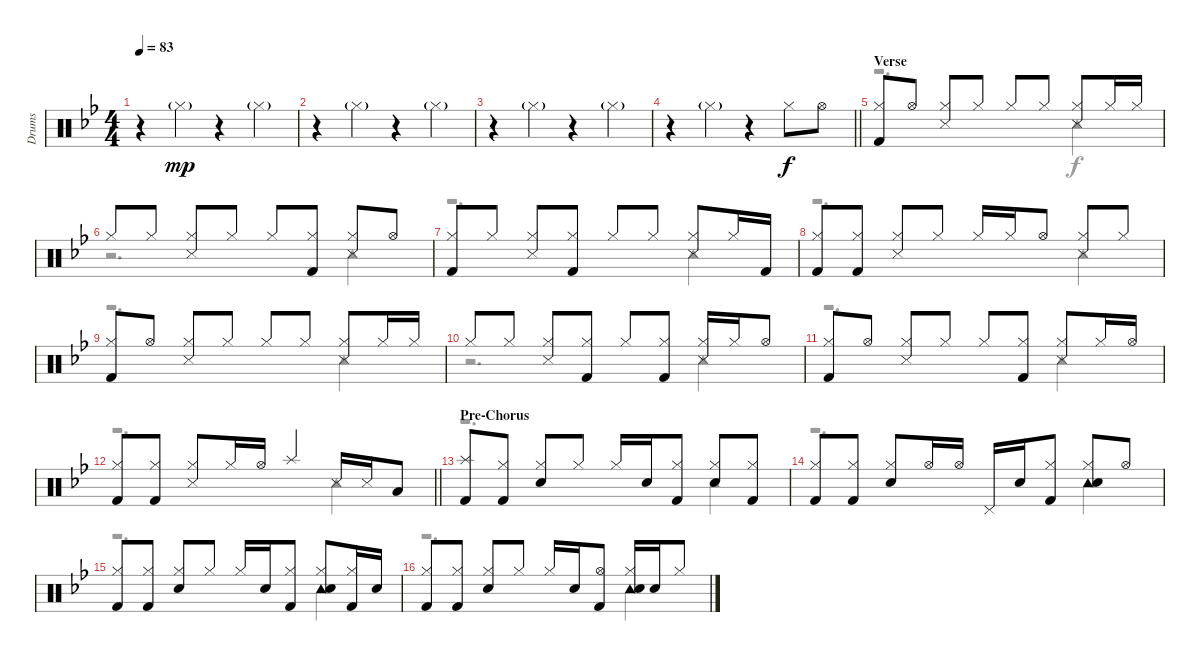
\track ("Drums" "Drums") {instrument percussion}
\staff {score}
\articulation defaults
\voice
\ts (4 4)
\section ("" "")
\tempo 83
\clef neutral
\ks bb
r.4{dy f} "Hi-Hat (closed)"{g}.4{dy mp} r.4 "Hi-Hat (closed)"{g}.4 |
r.4 "Hi-Hat (closed)"{g}.4 r.4 "Hi-Hat (closed)"{g}.4 |
r.4 "Hi-Hat (closed)"{g}.4 r.4 "Hi-Hat (closed)"{g}.4 |
\barLineRight lightlight
r.4 "Hi-Hat (closed)"{g}.4 r.4 "Hi-Hat (closed)".8{dy f} "Hi-Hat (open)".8 |
\section ("" "Verse")
("Hi-Hat (closed)" "Kick (hit) 2").8 "Hi-Hat (open)".8 ("Hi-Hat (closed)" "Snare (side stick) 3").8 "Hi-Hat (closed)".8 "Hi-Hat (closed)".8 "Hi-Hat (closed)".8 ("Hi-Hat (closed)" "Snare (side stick) 3").8 "Hi-Hat (closed)".16 "Hi-Hat (closed)".16 |
"Hi-Hat (closed)".8 "Hi-Hat (closed)".8 ("Hi-Hat (closed)" "Snare (side stick) 3").8 "Hi-Hat (closed)".8 "Hi-Hat (closed)".8 ("Hi-Hat (closed)" "Kick (hit) 2").8 ("Hi-Hat (closed)" "Snare (side stick) 3").8 "Hi-Hat (open)".8 |
("Hi-Hat (closed)" "Kick (hit) 2").8 "Hi-Hat (closed)".8 ("Hi-Hat (closed)" "Snare (side stick) 3").8 ("Hi-Hat (closed)" "Kick (hit) 2").8 "Hi-Hat (closed)".8 "Hi-Hat (closed)".8 ("Hi-Hat (closed)" "Snare (side stick) 3").8 "Hi-Hat (closed)".16 "Kick (hit) 2".16 |
("Hi-Hat (closed)" "Kick (hit) 2").8 ("Hi-Hat (closed)" "Kick (hit) 2").8 ("Hi-Hat (closed)" "Snare (side stick) 3").8 "Hi-Hat (closed)".8 "Hi-Hat (closed)".16 "Hi-Hat (closed)".16 "Hi-Hat (open)".8 ("Hi-Hat (closed)" "Snare (side stick) 3").8 "Hi-Hat (closed)".8 |
("Hi-Hat (closed)" "Kick (hit) 2").8 "Hi-Hat (open)".8 ("Hi-Hat (closed)" "Snare (side stick) 3").8 "Hi-Hat (closed)".8 "Hi-Hat (closed)".8 "Hi-Hat (closed)".8 ("Hi-Hat (closed)" "Snare (side stick) 3").8 "Hi-Hat (closed)".16 "Hi-Hat (closed)".16 |
"Hi-Hat (closed)".8 "Hi-Hat (closed)".8 ("Hi-Hat (closed)" "Snare (side stick) 3").8 ("Hi-Hat (closed)" "Kick (hit) 2").8 "Hi-Hat (closed)".8 ("Hi-Hat (closed)" "Kick (hit) 2").8 ("Hi-Hat (closed)" "Snare (side stick) 3").16 "Hi-Hat (closed)".16 "Hi-Hat (open)".8 |
("Hi-Hat (closed)" "Kick (hit) 2").8 "Hi-Hat (open)".8 ("Hi-Hat (closed)" "Snare (side stick) 3").8 "Hi-Hat (closed)".8 "Hi-Hat (closed)".8 ("Hi-Hat (closed)" "Kick (hit) 2").8 ("Hi-Hat (closed)" "Snare (side stick) 3").8 "Hi-Hat (closed)".16 "Hi-Hat (open)".16 |
\barLineRight lightlight
("Hi-Hat (closed)" "Kick (hit) 2").8 ("Hi-Hat (closed)" "Kick (hit) 2").8 ("Hi-Hat (closed)" "Snare (side stick) 3").8 "Hi-Hat (closed)".16 "Hi-Hat (open)".16 "Splash (hit)".4 "Snare (side stick) 3".16 "Snare (side stick) 3".16 "Low Tom (hit)".8 |
\section ("" "Pre-Chorus")
("Splash (hit)" "Kick (hit) 2").8 ("Hi-Hat (closed)" "Kick (hit) 2").8 ("Hi-Hat (closed)" "Electric Snare (hit)").8 "Hi-Hat (closed)".8 "Hi-Hat (closed)".16 "Electric Snare (hit)".16 ("Hi-Hat (closed)" "Kick (hit) 2").8 ("Hi-Hat (closed)" "Electric Snare (hit)").8 ("Hi-Hat (closed)" "Kick (hit) 2").8 |
("Hi-Hat (closed)" "Kick (hit) 2").8 ("Hi-Hat (closed)" "Kick (hit) 2").8 ("Hi-Hat (closed)" "Electric Snare (hit)").8 "Hi-Hat (open)".16 "Hi-Hat (open)".16 "Pedal Hi-Hat (hit)".16 "Electric Snare (hit)".16 ("Hi-Hat (closed)" "Kick (hit) 2").8 ("Hi-Hat (closed)" "Tambourine (hit)" "Electric Snare (hit)").8 "Hi-Hat (open)".8 |
("Hi-Hat (closed)" "Kick (hit) 2").8 ("Hi-Hat (closed)" "Kick (hit) 2").8 ("Hi-Hat (closed)" "Electric Snare (hit)").8 "Hi-Hat (closed)".8 "Hi-Hat (closed)".16 "Electric Snare (hit)".16 ("Hi-Hat (closed)" "Kick (hit) 2").8 ("Hi-Hat (closed)" "Tambourine (hit)" "Electric Snare (hit)").8 ("Hi-Hat (closed)" "Kick (hit) 2").16 "Electric Snare (hit)".16 |
("Hi-Hat (closed)" "Kick (hit) 2").8 ("Hi-Hat (closed)" "Kick (hit) 2").8 ("Hi-Hat (closed)" "Electric Snare (hit)").8 "Hi-Hat (closed)".8 "Hi-Hat (closed)".16 "Electric Snare (hit)".16 ("Hi-Hat (open)" "Kick (hit) 2").8 ("Hi-Hat (closed)" "Tambourine (hit)" "Electric Snare (hit)").16 "Electric Snare (hit)".16 "Hi-Hat (closed)".8
\voice
\clef neutral
\ottava regular
\simile none
\ks bb
|
|
|
\barLineRight lightlight
|
r.2{d} "Tambourine (hit)".4 |
r.2{d} "Tambourine (hit)".4 |
r.2{d} "Tambourine (hit)".4 |
r.2{d} "Tambourine (hit)".4 |
r.2{d} "Tambourine (hit)".4 |
r.2{d} "Tambourine (hit)".4 |
r.2{d} "Tambourine (hit)".4 |
\barLineRight lightlight
r.2{d} "Tambourine (hit)".4 |
r.2{d} "Tambourine (hit)".4 |
r.2{d} "Tambourine (hit)".4 |
r.2{d} "Tambourine (hit)".4 |
r.2{d} "Tambourine (hit)".4
